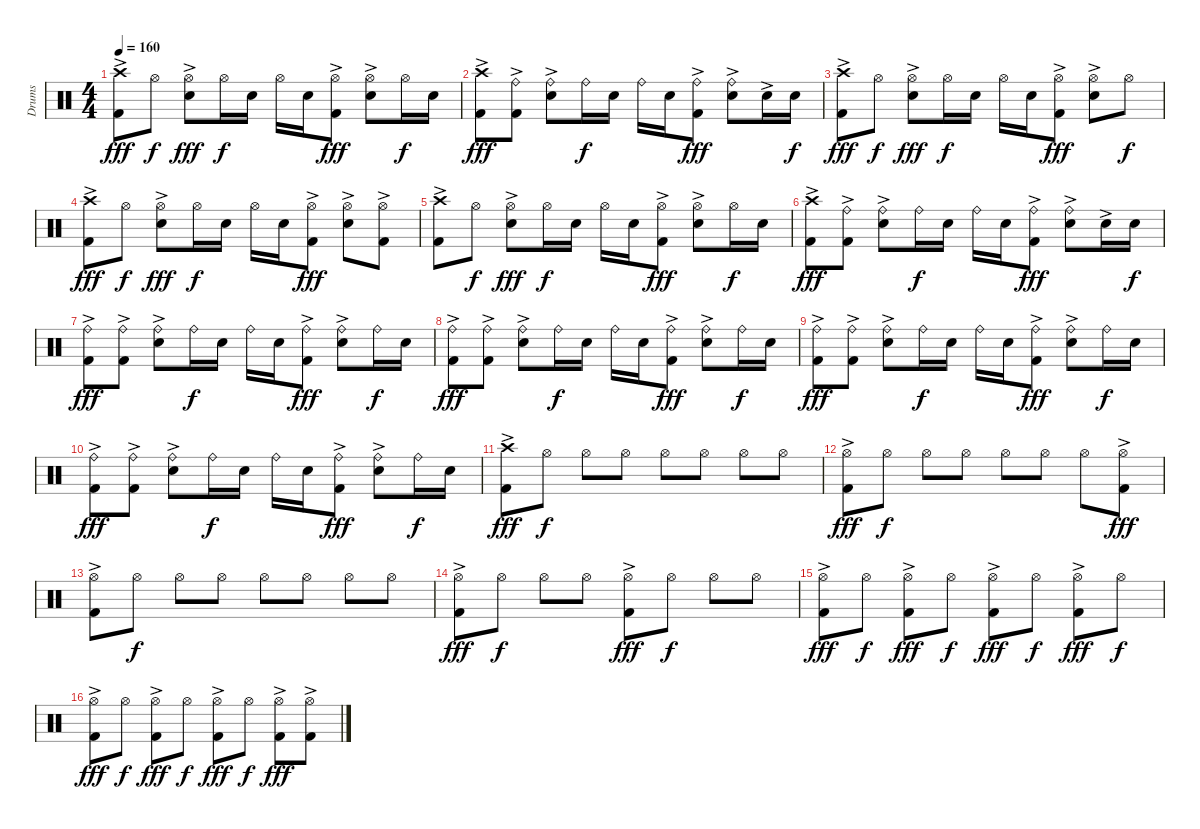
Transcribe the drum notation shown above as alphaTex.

\track ("Drums" "Drums") {instrument percussion}
\staff {score}
\articulation defaults
\ts (4 4)
\tempo 160
\clef neutral
\ks c
("Crash high (hit)" "Kick (hit) 2"{ac}).8{dy fff} "Hi-Hat (open)".8{dy f} ("Hi-Hat (open)" "Snare (hit) 2"{ac}).8{dy fff} "Hi-Hat (open)".16{dy f} "Snare (hit) 2".16 "Hi-Hat (open)".16 "Snare (hit) 2".16 ("Hi-Hat (open)" "Kick (hit) 2"{ac}).8{dy fff} ("Hi-Hat (open)" "Snare (hit) 2"{ac}).8 "Hi-Hat (open)".16{dy f} "Snare (hit) 2".16 |
("Crash high (hit)" "Kick (hit) 2"{ac}).8{dy fff} ("Ride (bell)" "Kick (hit) 2"{ac}).8 ("Ride (bell)" "Snare (hit) 2"{ac}).8 "Ride (bell)".16{dy f} "Snare (hit) 2".16 "Ride (bell)".16 "Snare (hit) 2".16 ("Ride (bell)" "Kick (hit) 2"{ac}).8{dy fff} ("Ride (bell)" "Snare (hit) 2"{ac}).8 "Snare (hit) 2"{ac}.16 "Snare (hit) 2".16{dy f} |
("Crash high (hit)" "Kick (hit) 2"{ac}).8{dy fff} "Hi-Hat (open)".8{dy f} ("Hi-Hat (open)" "Snare (hit) 2"{ac}).8{dy fff} "Hi-Hat (open)".16{dy f} "Snare (hit) 2".16 "Hi-Hat (open)".16 "Snare (hit) 2".16 ("Hi-Hat (open)" "Kick (hit) 2"{ac}).8{dy fff} ("Hi-Hat (open)" "Snare (hit) 2"{ac}).8 "Hi-Hat (open)".8{dy f} |
("Crash high (hit)" "Kick (hit) 2"{ac}).8{dy fff} "Hi-Hat (open)".8{dy f} ("Hi-Hat (open)" "Snare (hit) 2"{ac}).8{dy fff} "Hi-Hat (open)".16{dy f} "Snare (hit) 2".16 "Hi-Hat (open)".16 "Snare (hit) 2".16 ("Hi-Hat (open)" "Kick (hit) 2"{ac}).8{dy fff} ("Hi-Hat (open)" "Snare (hit) 2"{ac}).8 ("Hi-Hat (open)" "Kick (hit) 2"{ac}).8 |
("Crash high (hit)" "Kick (hit) 2"{ac}).8 "Hi-Hat (open)".8{dy f} ("Hi-Hat (open)" "Snare (hit) 2"{ac}).8{dy fff} "Hi-Hat (open)".16{dy f} "Snare (hit) 2".16 "Hi-Hat (open)".16 "Snare (hit) 2".16 ("Hi-Hat (open)" "Kick (hit) 2"{ac}).8{dy fff} ("Hi-Hat (open)" "Snare (hit) 2"{ac}).8 "Hi-Hat (open)".16{dy f} "Snare (hit) 2".16 |
("Crash high (hit)" "Kick (hit) 2"{ac}).8{dy fff} ("Ride (bell)" "Kick (hit) 2"{ac}).8 ("Ride (bell)" "Snare (hit) 2"{ac}).8 "Ride (bell)".16{dy f} "Snare (hit) 2".16 "Ride (bell)".16 "Snare (hit) 2".16 ("Ride (bell)" "Kick (hit) 2"{ac}).8{dy fff} ("Ride (bell)" "Snare (hit) 2"{ac}).8 "Snare (hit) 2"{ac}.16 "Snare (hit) 2".16{dy f} |
("Ride (bell)" "Kick (hit) 2"{ac}).8{dy fff} ("Ride (bell)" "Kick (hit) 2"{ac}).8 ("Ride (bell)" "Snare (hit) 2"{ac}).8 "Ride (bell)".16{dy f} "Snare (hit) 2".16 "Ride (bell)".16 "Snare (hit) 2".16 ("Ride (bell)" "Kick (hit) 2"{ac}).8{dy fff} ("Ride (bell)" "Snare (hit) 2"{ac}).8 "Ride (bell)".16{dy f} "Snare (hit) 2".16 |
("Ride (bell)" "Kick (hit) 2"{ac}).8{dy fff} ("Ride (bell)" "Kick (hit) 2"{ac}).8 ("Ride (bell)" "Snare (hit) 2"{ac}).8 "Ride (bell)".16{dy f} "Snare (hit) 2".16 "Ride (bell)".16 "Snare (hit) 2".16 ("Ride (bell)" "Kick (hit) 2"{ac}).8{dy fff} ("Ride (bell)" "Snare (hit) 2"{ac}).8 "Ride (bell)".16{dy f} "Snare (hit) 2".16 |
("Ride (bell)" "Kick (hit) 2"{ac}).8{dy fff} ("Ride (bell)" "Kick (hit) 2"{ac}).8 ("Ride (bell)" "Snare (hit) 2"{ac}).8 "Ride (bell)".16{dy f} "Snare (hit) 2".16 "Ride (bell)".16 "Snare (hit) 2".16 ("Ride (bell)" "Kick (hit) 2"{ac}).8{dy fff} ("Ride (bell)" "Snare (hit) 2"{ac}).8 "Ride (bell)".16{dy f} "Snare (hit) 2".16 |
("Ride (bell)" "Kick (hit) 2"{ac}).8{dy fff} ("Ride (bell)" "Kick (hit) 2"{ac}).8 ("Ride (bell)" "Snare (hit) 2"{ac}).8 "Ride (bell)".16{dy f} "Snare (hit) 2".16 "Ride (bell)".16 "Snare (hit) 2".16 ("Ride (bell)" "Kick (hit) 2"{ac}).8{dy fff} ("Ride (bell)" "Snare (hit) 2"{ac}).8 "Ride (bell)".16{dy f} "Snare (hit) 2".16 |
("Crash high (hit)" "Kick (hit) 2"{ac}).8{dy fff} "Hi-Hat (open)".8{dy f} "Hi-Hat (open)".8 "Hi-Hat (open)".8 "Hi-Hat (open)".8 "Hi-Hat (open)".8 "Hi-Hat (open)".8 "Hi-Hat (open)".8 |
("Hi-Hat (open)" "Kick (hit) 2"{ac}).8{dy fff} "Hi-Hat (open)".8{dy f} "Hi-Hat (open)".8 "Hi-Hat (open)".8 "Hi-Hat (open)".8 "Hi-Hat (open)".8 "Hi-Hat (open)".8 ("Hi-Hat (open)" "Kick (hit) 2"{ac}).8{dy fff} |
("Hi-Hat (open)" "Kick (hit) 2"{ac}).8 "Hi-Hat (open)".8{dy f} "Hi-Hat (open)".8 "Hi-Hat (open)".8 "Hi-Hat (open)".8 "Hi-Hat (open)".8 "Hi-Hat (open)".8 "Hi-Hat (open)".8 |
("Hi-Hat (open)" "Kick (hit) 2"{ac}).8{dy fff} "Hi-Hat (open)".8{dy f} "Hi-Hat (open)".8 "Hi-Hat (open)".8 ("Hi-Hat (open)" "Kick (hit) 2"{ac}).8{dy fff} "Hi-Hat (open)".8{dy f} "Hi-Hat (open)".8 "Hi-Hat (open)".8 |
("Hi-Hat (open)" "Kick (hit) 2"{ac}).8{dy fff} "Hi-Hat (open)".8{dy f} ("Hi-Hat (open)" "Kick (hit) 2"{ac}).8{dy fff} "Hi-Hat (open)".8{dy f} ("Hi-Hat (open)" "Kick (hit) 2"{ac}).8{dy fff} "Hi-Hat (open)".8{dy f} ("Hi-Hat (open)" "Kick (hit) 2"{ac}).8{dy fff} "Hi-Hat (open)".8{dy f} |
("Hi-Hat (open)" "Kick (hit) 2"{ac}).8{dy fff} "Hi-Hat (open)".8{dy f} ("Hi-Hat (open)" "Kick (hit) 2"{ac}).8{dy fff} "Hi-Hat (open)".8{dy f} ("Hi-Hat (open)" "Kick (hit) 2"{ac}).8{dy fff} "Hi-Hat (open)".8{dy f} ("Hi-Hat (open)" "Kick (hit) 2"{ac}).8{dy fff} ("Hi-Hat (open)" "Kick (hit) 2"{ac}).8
